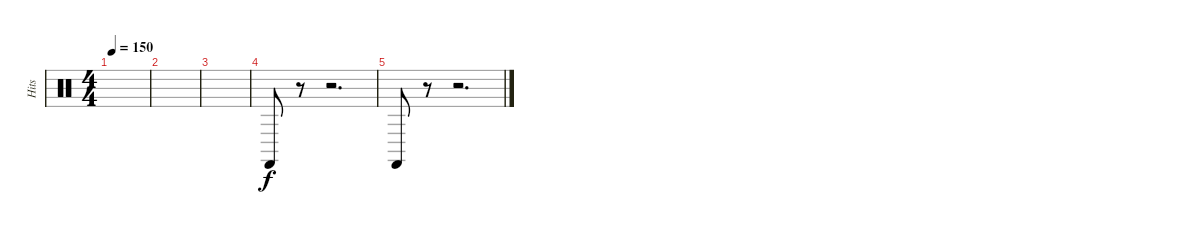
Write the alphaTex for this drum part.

\track ("Hits" "Hits") {instrument percussion}
\staff {score}
\articulation defaults
\ts (4 4)
\tempo 150
\clef neutral
\ks c
|
|
|
"Castanets (hit)".8 r.8 r.2{d} |
"Castanets (hit)".8 r.8 r.2{d}
